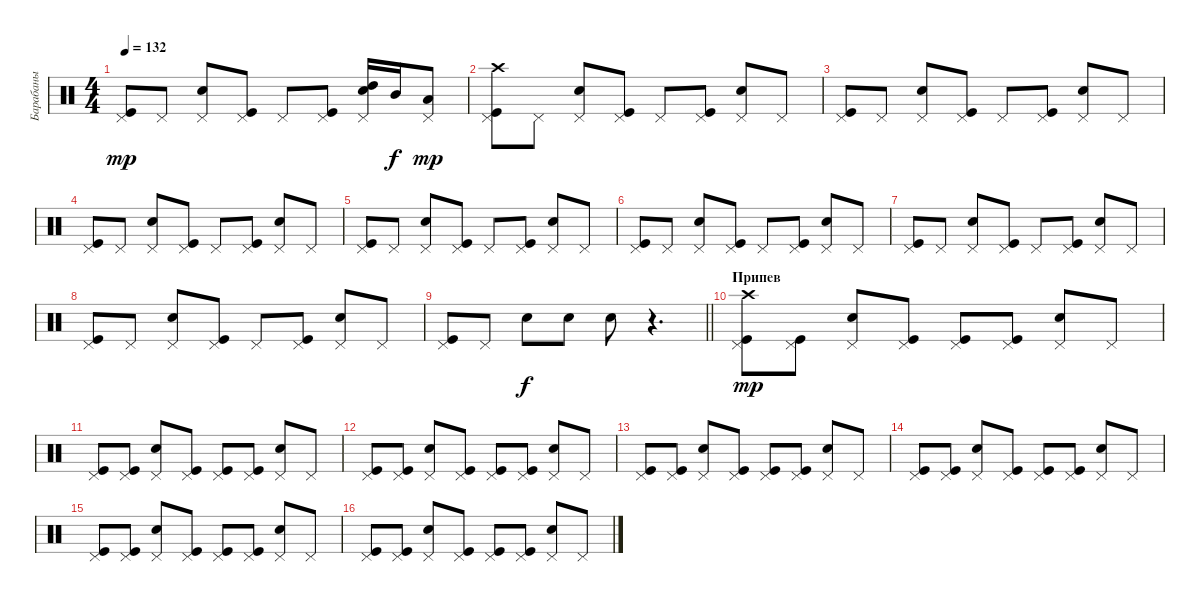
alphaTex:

\track ("Барабаны" "Барабаны") {instrument percussion}
\staff {score}
\articulation defaults
\ts (4 4)
\tempo 132
\clef neutral
\ks c
("Kick (hit)" "Pedal Hi-Hat (hit)").8{dy mp} "Pedal Hi-Hat (hit)".8 ("Snare (hit) 2" "Pedal Hi-Hat (hit)").8 ("Kick (hit)" "Pedal Hi-Hat (hit)").8 "Pedal Hi-Hat (hit)".8 ("Kick (hit)" "Pedal Hi-Hat (hit)").8 ("Snare (hit) 2" "Pedal Hi-Hat (hit)" "High Tom (hit)").16 "Mid Tom (hit)".16{dy f} ("Pedal Hi-Hat (hit)" "Low Floor Tom (hit)").8{dy mp} |
("Kick (hit)" "Pedal Hi-Hat (hit)" "Crash high (hit)").8 "Pedal Hi-Hat (hit)".8 ("Snare (hit) 2" "Pedal Hi-Hat (hit)").8 ("Kick (hit)" "Pedal Hi-Hat (hit)").8 "Pedal Hi-Hat (hit)".8 ("Kick (hit)" "Pedal Hi-Hat (hit)").8 ("Snare (hit) 2" "Pedal Hi-Hat (hit)").8 "Pedal Hi-Hat (hit)".8 |
("Kick (hit)" "Pedal Hi-Hat (hit)").8 "Pedal Hi-Hat (hit)".8 ("Snare (hit) 2" "Pedal Hi-Hat (hit)").8 ("Kick (hit)" "Pedal Hi-Hat (hit)").8 "Pedal Hi-Hat (hit)".8 ("Kick (hit)" "Pedal Hi-Hat (hit)").8 ("Snare (hit) 2" "Pedal Hi-Hat (hit)").8 "Pedal Hi-Hat (hit)".8 |
("Kick (hit)" "Pedal Hi-Hat (hit)").8 "Pedal Hi-Hat (hit)".8 ("Snare (hit) 2" "Pedal Hi-Hat (hit)").8 ("Kick (hit)" "Pedal Hi-Hat (hit)").8 "Pedal Hi-Hat (hit)".8 ("Kick (hit)" "Pedal Hi-Hat (hit)").8 ("Snare (hit) 2" "Pedal Hi-Hat (hit)").8 "Pedal Hi-Hat (hit)".8 |
("Kick (hit)" "Pedal Hi-Hat (hit)").8 "Pedal Hi-Hat (hit)".8 ("Snare (hit) 2" "Pedal Hi-Hat (hit)").8 ("Kick (hit)" "Pedal Hi-Hat (hit)").8 "Pedal Hi-Hat (hit)".8 ("Kick (hit)" "Pedal Hi-Hat (hit)").8 ("Snare (hit) 2" "Pedal Hi-Hat (hit)").8 "Pedal Hi-Hat (hit)".8 |
("Kick (hit)" "Pedal Hi-Hat (hit)").8 "Pedal Hi-Hat (hit)".8 ("Snare (hit) 2" "Pedal Hi-Hat (hit)").8 ("Kick (hit)" "Pedal Hi-Hat (hit)").8 "Pedal Hi-Hat (hit)".8 ("Kick (hit)" "Pedal Hi-Hat (hit)").8 ("Snare (hit) 2" "Pedal Hi-Hat (hit)").8 "Pedal Hi-Hat (hit)".8 |
("Kick (hit)" "Pedal Hi-Hat (hit)").8 "Pedal Hi-Hat (hit)".8 ("Snare (hit) 2" "Pedal Hi-Hat (hit)").8 ("Kick (hit)" "Pedal Hi-Hat (hit)").8 "Pedal Hi-Hat (hit)".8 ("Kick (hit)" "Pedal Hi-Hat (hit)").8 ("Snare (hit) 2" "Pedal Hi-Hat (hit)").8 "Pedal Hi-Hat (hit)".8 |
("Kick (hit)" "Pedal Hi-Hat (hit)").8 "Pedal Hi-Hat (hit)".8 ("Snare (hit) 2" "Pedal Hi-Hat (hit)").8 ("Kick (hit)" "Pedal Hi-Hat (hit)").8 "Pedal Hi-Hat (hit)".8 ("Kick (hit)" "Pedal Hi-Hat (hit)").8 ("Snare (hit) 2" "Pedal Hi-Hat (hit)").8 "Pedal Hi-Hat (hit)".8 |
\barLineRight lightlight
("Kick (hit)" "Pedal Hi-Hat (hit)").8 "Pedal Hi-Hat (hit)".8 "Snare (hit) 2".8{dy f} "Snare (hit) 2".8 "Snare (hit) 2".8 r.4{d} |
\section ("" "Припев")
("Kick (hit)" "Pedal Hi-Hat (hit)" "Crash high (hit)").8{dy mp} ("Kick (hit)" "Pedal Hi-Hat (hit)").8 ("Snare (hit) 2" "Pedal Hi-Hat (hit)").8 ("Kick (hit)" "Pedal Hi-Hat (hit)").8 ("Kick (hit)" "Pedal Hi-Hat (hit)").8 ("Kick (hit)" "Pedal Hi-Hat (hit)").8 ("Snare (hit) 2" "Pedal Hi-Hat (hit)").8 "Pedal Hi-Hat (hit)".8 |
("Kick (hit)" "Pedal Hi-Hat (hit)").8 ("Kick (hit)" "Pedal Hi-Hat (hit)").8 ("Snare (hit) 2" "Pedal Hi-Hat (hit)").8 ("Kick (hit)" "Pedal Hi-Hat (hit)").8 ("Kick (hit)" "Pedal Hi-Hat (hit)").8 ("Kick (hit)" "Pedal Hi-Hat (hit)").8 ("Snare (hit) 2" "Pedal Hi-Hat (hit)").8 "Pedal Hi-Hat (hit)".8 |
("Kick (hit)" "Pedal Hi-Hat (hit)").8 ("Kick (hit)" "Pedal Hi-Hat (hit)").8 ("Snare (hit) 2" "Pedal Hi-Hat (hit)").8 ("Kick (hit)" "Pedal Hi-Hat (hit)").8 ("Kick (hit)" "Pedal Hi-Hat (hit)").8 ("Kick (hit)" "Pedal Hi-Hat (hit)").8 ("Snare (hit) 2" "Pedal Hi-Hat (hit)").8 "Pedal Hi-Hat (hit)".8 |
("Kick (hit)" "Pedal Hi-Hat (hit)").8 ("Kick (hit)" "Pedal Hi-Hat (hit)").8 ("Snare (hit) 2" "Pedal Hi-Hat (hit)").8 ("Kick (hit)" "Pedal Hi-Hat (hit)").8 ("Kick (hit)" "Pedal Hi-Hat (hit)").8 ("Kick (hit)" "Pedal Hi-Hat (hit)").8 ("Snare (hit) 2" "Pedal Hi-Hat (hit)").8 "Pedal Hi-Hat (hit)".8 |
("Kick (hit)" "Pedal Hi-Hat (hit)").8 ("Kick (hit)" "Pedal Hi-Hat (hit)").8 ("Snare (hit) 2" "Pedal Hi-Hat (hit)").8 ("Kick (hit)" "Pedal Hi-Hat (hit)").8 ("Kick (hit)" "Pedal Hi-Hat (hit)").8 ("Kick (hit)" "Pedal Hi-Hat (hit)").8 ("Snare (hit) 2" "Pedal Hi-Hat (hit)").8 "Pedal Hi-Hat (hit)".8 |
("Kick (hit)" "Pedal Hi-Hat (hit)").8 ("Kick (hit)" "Pedal Hi-Hat (hit)").8 ("Snare (hit) 2" "Pedal Hi-Hat (hit)").8 ("Kick (hit)" "Pedal Hi-Hat (hit)").8 ("Kick (hit)" "Pedal Hi-Hat (hit)").8 ("Kick (hit)" "Pedal Hi-Hat (hit)").8 ("Snare (hit) 2" "Pedal Hi-Hat (hit)").8 "Pedal Hi-Hat (hit)".8 |
("Kick (hit)" "Pedal Hi-Hat (hit)").8 ("Kick (hit)" "Pedal Hi-Hat (hit)").8 ("Snare (hit) 2" "Pedal Hi-Hat (hit)").8 ("Kick (hit)" "Pedal Hi-Hat (hit)").8 ("Kick (hit)" "Pedal Hi-Hat (hit)").8 ("Kick (hit)" "Pedal Hi-Hat (hit)").8 ("Snare (hit) 2" "Pedal Hi-Hat (hit)").8 "Pedal Hi-Hat (hit)".8
